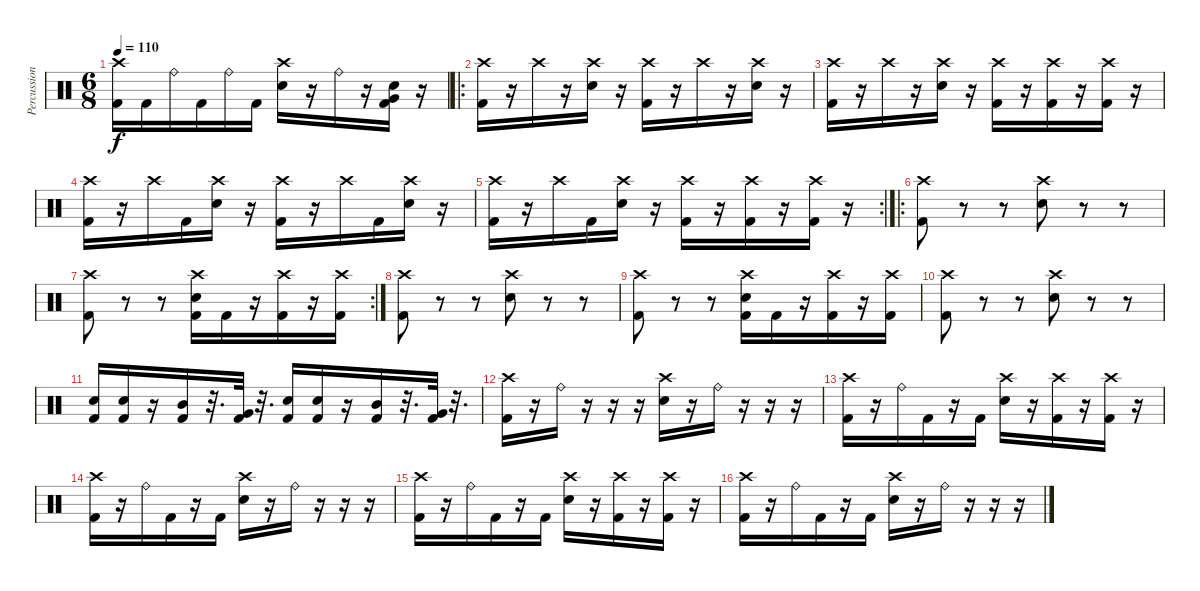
\track ("Percussion" "Percussion") {instrument percussion}
\staff {score}
\articulation defaults
\ts (6 8)
\tempo 110
\clef neutral
\ks c
("Crash high (hit)" "Kick (hit) 2").16{dy f} "Kick (hit) 2".16 "Ride (bell)".16 "Kick (hit) 2".16 "Ride (bell)".16 "Kick (hit) 2".16 ("Crash high (hit)" "Electric Snare (hit)").16 r.16 "Ride (bell)".16 r.16 ("Very Low Tom (hit)" "Electric Snare (hit)" "Kick (hit) 2").16 r.16 |
\ro
("Crash high (hit)" "Kick (hit) 2").16 r.16 "Crash high (hit)".16 r.16 ("Crash high (hit)" "Electric Snare (hit)").16 r.16 ("Crash high (hit)" "Kick (hit) 2").16 r.16 "Crash high (hit)".16 r.16 ("Crash high (hit)" "Electric Snare (hit)").16 r.16 |
("Crash high (hit)" "Kick (hit) 2").16 r.16 "Crash high (hit)".16 r.16 ("Crash high (hit)" "Electric Snare (hit)").16 r.16 ("Crash high (hit)" "Kick (hit) 2").16 r.16 ("Crash high (hit)" "Kick (hit) 2").16 r.16 ("Crash high (hit)" "Kick (hit) 2").16 r.16 |
("Crash high (hit)" "Kick (hit) 2").16 r.16 "Crash high (hit)".16 "Kick (hit) 2".16 ("Crash high (hit)" "Electric Snare (hit)").16 r.16 ("Crash high (hit)" "Kick (hit) 2").16 r.16 "Crash high (hit)".16 "Kick (hit) 2".16 ("Crash high (hit)" "Electric Snare (hit)").16 r.16 |
\rc 2
("Crash high (hit)" "Kick (hit) 2").16 r.16 "Crash high (hit)".16 "Kick (hit) 2".16 ("Crash high (hit)" "Electric Snare (hit)").16 r.16 ("Crash high (hit)" "Kick (hit) 2").16 r.16 ("Crash high (hit)" "Kick (hit) 2").16 r.16 ("Crash high (hit)" "Kick (hit) 2").16 r.16 |
\ro
("Crash high (hit)" "Kick (hit) 2").8 r.8 r.8 ("Crash high (hit)" "Electric Snare (hit)").8 r.8 r.8 |
\rc 2
("Crash high (hit)" "Kick (hit) 2").8 r.8 r.8 ("Crash high (hit)" "Electric Snare (hit)" "Kick (hit) 2").16 "Kick (hit) 2".16 r.16 ("Crash high (hit)" "Kick (hit) 2").16 r.16 ("Crash high (hit)" "Kick (hit) 2").16 |
("Crash high (hit)" "Kick (hit) 2").8 r.8 r.8 ("Crash high (hit)" "Electric Snare (hit)").8 r.8 r.8 |
("Crash high (hit)" "Kick (hit) 2").8 r.8 r.8 ("Crash high (hit)" "Electric Snare (hit)" "Kick (hit) 2").16 "Kick (hit) 2".16 r.16 ("Crash high (hit)" "Kick (hit) 2").16 r.16 ("Crash high (hit)" "Kick (hit) 2").16 |
("Crash high (hit)" "Kick (hit) 2").8 r.8 r.8 ("Crash high (hit)" "Electric Snare (hit)").8 r.8 r.8 |
("Electric Snare (hit)" "Kick (hit) 2").16 ("Electric Snare (hit)" "Kick (hit) 2").16 r.16 ("Mid Tom (hit)" "Kick (hit) 2").16 r.32{d} ("Very Low Tom (hit)" "Kick (hit) 2").32 r.32{d} ("Electric Snare (hit)" "Kick (hit) 2").16 ("Electric Snare (hit)" "Kick (hit) 2").16 r.16 ("Mid Tom (hit)" "Kick (hit) 2").16 r.32{d} ("Very Low Tom (hit)" "Kick (hit) 2").32 r.32{d} |
("Crash high (hit)" "Kick (hit) 2").16 r.16 "Ride (bell)".16 r.16 r.16 r.16 ("Crash high (hit)" "Electric Snare (hit)").16 r.16 "Ride (bell)".16 r.16 r.16 r.16 |
("Crash high (hit)" "Kick (hit) 2").16 r.16 "Ride (bell)".16 "Kick (hit) 2".16 r.16 "Kick (hit) 2".16 ("Crash high (hit)" "Electric Snare (hit)").16 r.16 ("Crash high (hit)" "Kick (hit) 2").16 r.16 ("Crash high (hit)" "Kick (hit) 2").16 r.16 |
("Crash high (hit)" "Kick (hit) 2").16 r.16 "Ride (bell)".16 "Kick (hit) 2".16 r.16 "Kick (hit) 2".16 ("Crash high (hit)" "Electric Snare (hit)").16 r.16 "Ride (bell)".16 r.16 r.16 r.16 |
("Crash high (hit)" "Kick (hit) 2").16 r.16 "Ride (bell)".16 "Kick (hit) 2".16 r.16 "Kick (hit) 2".16 ("Crash high (hit)" "Electric Snare (hit)").16 r.16 ("Crash high (hit)" "Kick (hit) 2").16 r.16 ("Crash high (hit)" "Kick (hit) 2").16 r.16 |
("Crash high (hit)" "Kick (hit) 2").16 r.16 "Ride (bell)".16 "Kick (hit) 2".16 r.16 "Kick (hit) 2".16 ("Crash high (hit)" "Electric Snare (hit)").16 r.16 "Ride (bell)".16 r.16 r.16 r.16
